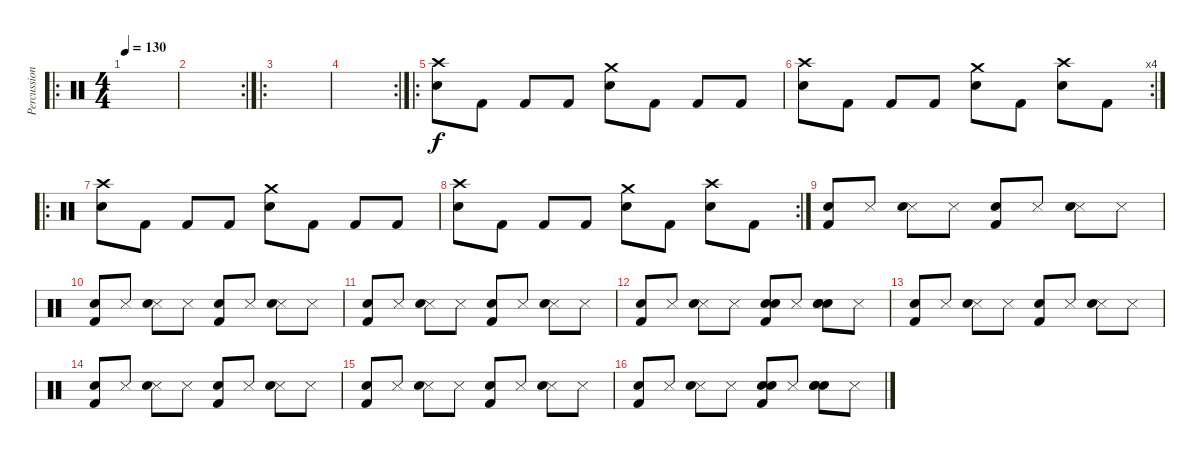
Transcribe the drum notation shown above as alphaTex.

\track ("Percussions" "Percussion") {instrument percussion}
\staff {score}
\articulation defaults
\ro
\ts (4 4)
\tempo 130
\clef neutral
\ks c
|
\rc 2
|
\ro
|
\rc 2
|
\ro
("Crash high (hit)" "Snare (hit) 2").8 "Kick (hit) 2".8 "Kick (hit) 2".8 "Kick (hit) 2".8 ("Crash medium (hit)" "Snare (hit) 2").8 "Kick (hit) 2".8 "Kick (hit) 2".8 "Kick (hit) 2".8 |
\rc 4
("Crash high (hit)" "Snare (hit) 2").8 "Kick (hit) 2".8 "Kick (hit) 2".8 "Kick (hit) 2".8 ("Crash medium (hit)" "Snare (hit) 2").8 "Kick (hit) 2".8 ("Crash high (hit)" "Snare (hit) 2").8 "Kick (hit) 2".8 |
\ro
("Crash high (hit)" "Snare (hit) 2").8 "Kick (hit) 2".8 "Kick (hit) 2".8 "Kick (hit) 2".8 ("Crash medium (hit)" "Snare (hit) 2").8 "Kick (hit) 2".8 "Kick (hit) 2".8 "Kick (hit) 2".8 |
\rc 2
("Crash high (hit)" "Snare (hit) 2").8 "Kick (hit) 2".8 "Kick (hit) 2".8 "Kick (hit) 2".8 ("Crash medium (hit)" "Snare (hit) 2").8 "Kick (hit) 2".8 ("Crash high (hit)" "Snare (hit) 2").8 "Kick (hit) 2".8 |
("Metronome (bell)" "Kick (hit) 2").8 "Snare (side stick) 3".8 ("Snare (side stick) 3" "Snare (hit) 2").8 "Snare (side stick) 3".8 ("Metronome (bell)" "Kick (hit) 2").8 "Snare (side stick) 3".8 ("Snare (side stick) 3" "Snare (hit) 2").8 "Snare (side stick) 3".8 |
("Metronome (bell)" "Kick (hit) 2").8 "Snare (side stick) 3".8 ("Snare (side stick) 3" "Snare (hit) 2").8 "Snare (side stick) 3".8 ("Metronome (bell)" "Kick (hit) 2").8 "Snare (side stick) 3".8 ("Snare (side stick) 3" "Snare (hit) 2").8 "Snare (side stick) 3".8 |
("Metronome (bell)" "Kick (hit) 2").8 "Snare (side stick) 3".8 ("Snare (side stick) 3" "Snare (hit) 2").8 "Snare (side stick) 3".8 ("Metronome (bell)" "Kick (hit) 2").8 "Snare (side stick) 3".8 ("Snare (side stick) 3" "Snare (hit) 2").8 "Snare (side stick) 3".8 |
("Metronome (bell)" "Kick (hit) 2").8 "Snare (side stick) 3".8 ("Snare (side stick) 3" "Snare (hit) 2").8 "Snare (side stick) 3".8 ("Metronome (bell)" "Metronome (bell)" "Kick (hit) 2").8 "Snare (side stick) 3".8 ("Metronome (bell)" "Metronome (bell)" "Snare (hit) 2").8 "Snare (side stick) 3".8 |
("Metronome (bell)" "Kick (hit) 2").8 "Snare (side stick) 3".8 ("Snare (side stick) 3" "Snare (hit) 2").8 "Snare (side stick) 3".8 ("Metronome (bell)" "Kick (hit) 2").8 "Snare (side stick) 3".8 ("Snare (side stick) 3" "Snare (hit) 2").8 "Snare (side stick) 3".8 |
("Metronome (bell)" "Kick (hit) 2").8 "Snare (side stick) 3".8 ("Snare (side stick) 3" "Snare (hit) 2").8 "Snare (side stick) 3".8 ("Metronome (bell)" "Kick (hit) 2").8 "Snare (side stick) 3".8 ("Snare (side stick) 3" "Snare (hit) 2").8 "Snare (side stick) 3".8 |
("Metronome (bell)" "Kick (hit) 2").8 "Snare (side stick) 3".8 ("Snare (side stick) 3" "Snare (hit) 2").8 "Snare (side stick) 3".8 ("Metronome (bell)" "Kick (hit) 2").8 "Snare (side stick) 3".8 ("Snare (side stick) 3" "Snare (hit) 2").8 "Snare (side stick) 3".8 |
("Metronome (bell)" "Kick (hit) 2").8 "Snare (side stick) 3".8 ("Snare (side stick) 3" "Snare (hit) 2").8 "Snare (side stick) 3".8 ("Metronome (bell)" "Metronome (bell)" "Kick (hit) 2").8 "Snare (side stick) 3".8 ("Metronome (bell)" "Metronome (bell)" "Snare (hit) 2").8 "Snare (side stick) 3".8
